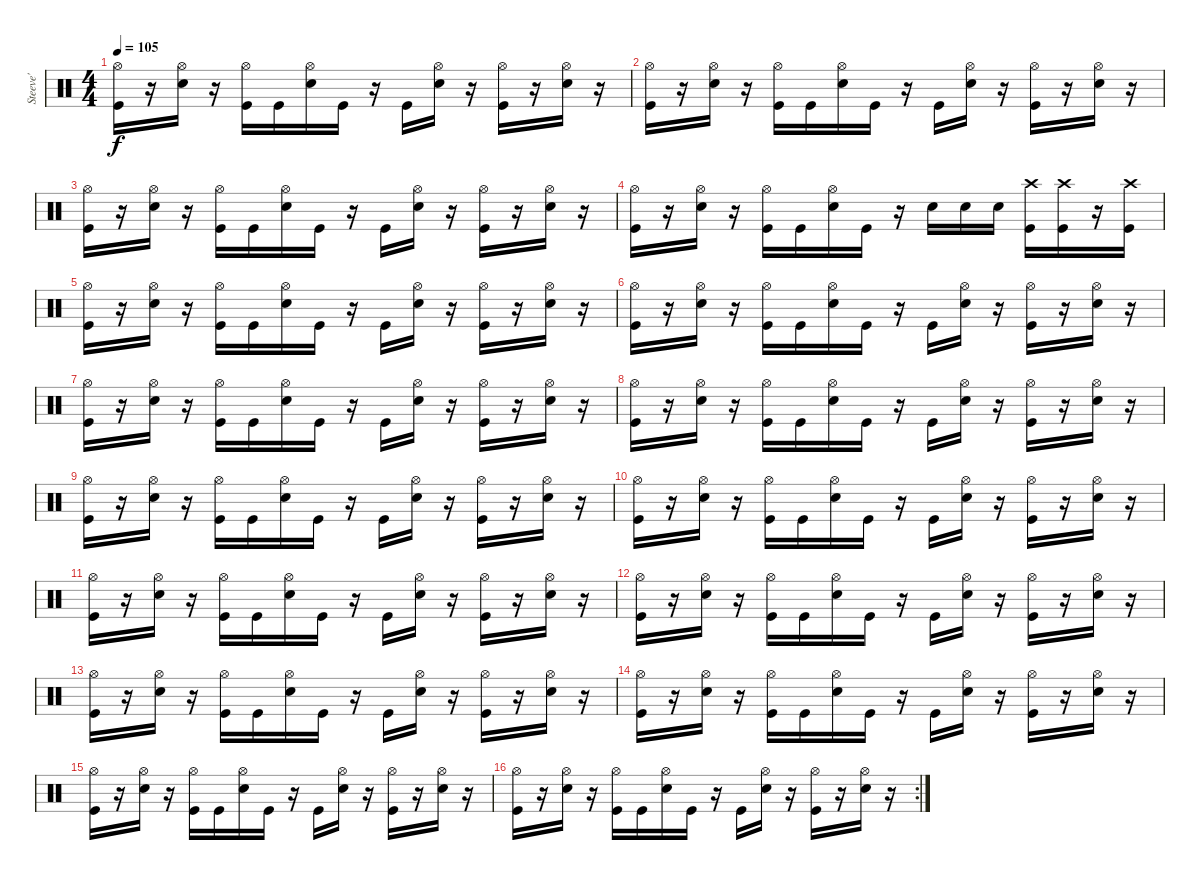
\track ("Steeve'" "Steeve'") {instrument percussion}
\staff {score}
\articulation defaults
\ts (4 4)
\tempo 105
\clef neutral
\ks c
("Kick (hit)" "Hi-Hat (open)").16{dy f} r.16 ("Electric Snare (hit)" "Hi-Hat (open)").16 r.16 ("Kick (hit)" "Hi-Hat (open)").16 "Kick (hit)".16 ("Electric Snare (hit)" "Hi-Hat (open)").16 "Kick (hit)".16 r.16 "Kick (hit)".16 ("Electric Snare (hit)" "Hi-Hat (open)").16 r.16 ("Kick (hit)" "Hi-Hat (open)").16 r.16 ("Electric Snare (hit)" "Hi-Hat (open)").16 r.16 |
("Kick (hit)" "Hi-Hat (open)").16 r.16 ("Electric Snare (hit)" "Hi-Hat (open)").16 r.16 ("Kick (hit)" "Hi-Hat (open)").16 "Kick (hit)".16 ("Electric Snare (hit)" "Hi-Hat (open)").16 "Kick (hit)".16 r.16 "Kick (hit)".16 ("Electric Snare (hit)" "Hi-Hat (open)").16 r.16 ("Kick (hit)" "Hi-Hat (open)").16 r.16 ("Electric Snare (hit)" "Hi-Hat (open)").16 r.16 |
("Kick (hit)" "Hi-Hat (open)").16 r.16 ("Electric Snare (hit)" "Hi-Hat (open)").16 r.16 ("Kick (hit)" "Hi-Hat (open)").16 "Kick (hit)".16 ("Electric Snare (hit)" "Hi-Hat (open)").16 "Kick (hit)".16 r.16 "Kick (hit)".16 ("Electric Snare (hit)" "Hi-Hat (open)").16 r.16 ("Kick (hit)" "Hi-Hat (open)").16 r.16 ("Electric Snare (hit)" "Hi-Hat (open)").16 r.16 |
("Kick (hit)" "Hi-Hat (open)").16 r.16 ("Electric Snare (hit)" "Hi-Hat (open)").16 r.16 ("Kick (hit)" "Hi-Hat (open)").16 "Kick (hit)".16 ("Electric Snare (hit)" "Hi-Hat (open)").16 "Kick (hit)".16 r.16 "Electric Snare (hit)".16 "Electric Snare (hit)".16 "Electric Snare (hit)".16 ("Kick (hit)" "Crash high (hit)").16 ("Kick (hit)" "Crash high (hit)").16 r.16 ("Kick (hit)" "Crash high (hit)").16 |
("Kick (hit)" "Hi-Hat (open)").16 r.16 ("Electric Snare (hit)" "Hi-Hat (open)").16 r.16 ("Kick (hit)" "Hi-Hat (open)").16 "Kick (hit)".16 ("Electric Snare (hit)" "Hi-Hat (open)").16 "Kick (hit)".16 r.16 "Kick (hit)".16 ("Electric Snare (hit)" "Hi-Hat (open)").16 r.16 ("Kick (hit)" "Hi-Hat (open)").16 r.16 ("Electric Snare (hit)" "Hi-Hat (open)").16 r.16 |
("Kick (hit)" "Hi-Hat (open)").16 r.16 ("Electric Snare (hit)" "Hi-Hat (open)").16 r.16 ("Kick (hit)" "Hi-Hat (open)").16 "Kick (hit)".16 ("Electric Snare (hit)" "Hi-Hat (open)").16 "Kick (hit)".16 r.16 "Kick (hit)".16 ("Electric Snare (hit)" "Hi-Hat (open)").16 r.16 ("Kick (hit)" "Hi-Hat (open)").16 r.16 ("Electric Snare (hit)" "Hi-Hat (open)").16 r.16 |
("Kick (hit)" "Hi-Hat (open)").16 r.16 ("Electric Snare (hit)" "Hi-Hat (open)").16 r.16 ("Kick (hit)" "Hi-Hat (open)").16 "Kick (hit)".16 ("Electric Snare (hit)" "Hi-Hat (open)").16 "Kick (hit)".16 r.16 "Kick (hit)".16 ("Electric Snare (hit)" "Hi-Hat (open)").16 r.16 ("Kick (hit)" "Hi-Hat (open)").16 r.16 ("Electric Snare (hit)" "Hi-Hat (open)").16 r.16 |
("Kick (hit)" "Hi-Hat (open)").16 r.16 ("Electric Snare (hit)" "Hi-Hat (open)").16 r.16 ("Kick (hit)" "Hi-Hat (open)").16 "Kick (hit)".16 ("Electric Snare (hit)" "Hi-Hat (open)").16 "Kick (hit)".16 r.16 "Kick (hit)".16 ("Electric Snare (hit)" "Hi-Hat (open)").16 r.16 ("Kick (hit)" "Hi-Hat (open)").16 r.16 ("Electric Snare (hit)" "Hi-Hat (open)").16 r.16 |
("Kick (hit)" "Hi-Hat (open)").16 r.16 ("Electric Snare (hit)" "Hi-Hat (open)").16 r.16 ("Kick (hit)" "Hi-Hat (open)").16 "Kick (hit)".16 ("Electric Snare (hit)" "Hi-Hat (open)").16 "Kick (hit)".16 r.16 "Kick (hit)".16 ("Electric Snare (hit)" "Hi-Hat (open)").16 r.16 ("Kick (hit)" "Hi-Hat (open)").16 r.16 ("Electric Snare (hit)" "Hi-Hat (open)").16 r.16 |
("Kick (hit)" "Hi-Hat (open)").16 r.16 ("Electric Snare (hit)" "Hi-Hat (open)").16 r.16 ("Kick (hit)" "Hi-Hat (open)").16 "Kick (hit)".16 ("Electric Snare (hit)" "Hi-Hat (open)").16 "Kick (hit)".16 r.16 "Kick (hit)".16 ("Electric Snare (hit)" "Hi-Hat (open)").16 r.16 ("Kick (hit)" "Hi-Hat (open)").16 r.16 ("Electric Snare (hit)" "Hi-Hat (open)").16 r.16 |
("Kick (hit)" "Hi-Hat (open)").16 r.16 ("Electric Snare (hit)" "Hi-Hat (open)").16 r.16 ("Kick (hit)" "Hi-Hat (open)").16 "Kick (hit)".16 ("Electric Snare (hit)" "Hi-Hat (open)").16 "Kick (hit)".16 r.16 "Kick (hit)".16 ("Electric Snare (hit)" "Hi-Hat (open)").16 r.16 ("Kick (hit)" "Hi-Hat (open)").16 r.16 ("Electric Snare (hit)" "Hi-Hat (open)").16 r.16 |
("Kick (hit)" "Hi-Hat (open)").16 r.16 ("Electric Snare (hit)" "Hi-Hat (open)").16 r.16 ("Kick (hit)" "Hi-Hat (open)").16 "Kick (hit)".16 ("Electric Snare (hit)" "Hi-Hat (open)").16 "Kick (hit)".16 r.16 "Kick (hit)".16 ("Electric Snare (hit)" "Hi-Hat (open)").16 r.16 ("Kick (hit)" "Hi-Hat (open)").16 r.16 ("Electric Snare (hit)" "Hi-Hat (open)").16 r.16 |
("Kick (hit)" "Hi-Hat (open)").16 r.16 ("Electric Snare (hit)" "Hi-Hat (open)").16 r.16 ("Kick (hit)" "Hi-Hat (open)").16 "Kick (hit)".16 ("Electric Snare (hit)" "Hi-Hat (open)").16 "Kick (hit)".16 r.16 "Kick (hit)".16 ("Electric Snare (hit)" "Hi-Hat (open)").16 r.16 ("Kick (hit)" "Hi-Hat (open)").16 r.16 ("Electric Snare (hit)" "Hi-Hat (open)").16 r.16 |
("Kick (hit)" "Hi-Hat (open)").16 r.16 ("Electric Snare (hit)" "Hi-Hat (open)").16 r.16 ("Kick (hit)" "Hi-Hat (open)").16 "Kick (hit)".16 ("Electric Snare (hit)" "Hi-Hat (open)").16 "Kick (hit)".16 r.16 "Kick (hit)".16 ("Electric Snare (hit)" "Hi-Hat (open)").16 r.16 ("Kick (hit)" "Hi-Hat (open)").16 r.16 ("Electric Snare (hit)" "Hi-Hat (open)").16 r.16 |
("Kick (hit)" "Hi-Hat (open)").16 r.16 ("Electric Snare (hit)" "Hi-Hat (open)").16 r.16 ("Kick (hit)" "Hi-Hat (open)").16 "Kick (hit)".16 ("Electric Snare (hit)" "Hi-Hat (open)").16 "Kick (hit)".16 r.16 "Kick (hit)".16 ("Electric Snare (hit)" "Hi-Hat (open)").16 r.16 ("Kick (hit)" "Hi-Hat (open)").16 r.16 ("Electric Snare (hit)" "Hi-Hat (open)").16 r.16 |
\rc 2
("Kick (hit)" "Hi-Hat (open)").16 r.16 ("Electric Snare (hit)" "Hi-Hat (open)").16 r.16 ("Kick (hit)" "Hi-Hat (open)").16 "Kick (hit)".16 ("Electric Snare (hit)" "Hi-Hat (open)").16 "Kick (hit)".16 r.16 "Kick (hit)".16 ("Electric Snare (hit)" "Hi-Hat (open)").16 r.16 ("Kick (hit)" "Hi-Hat (open)").16 r.16 ("Electric Snare (hit)" "Hi-Hat (open)").16 r.16
